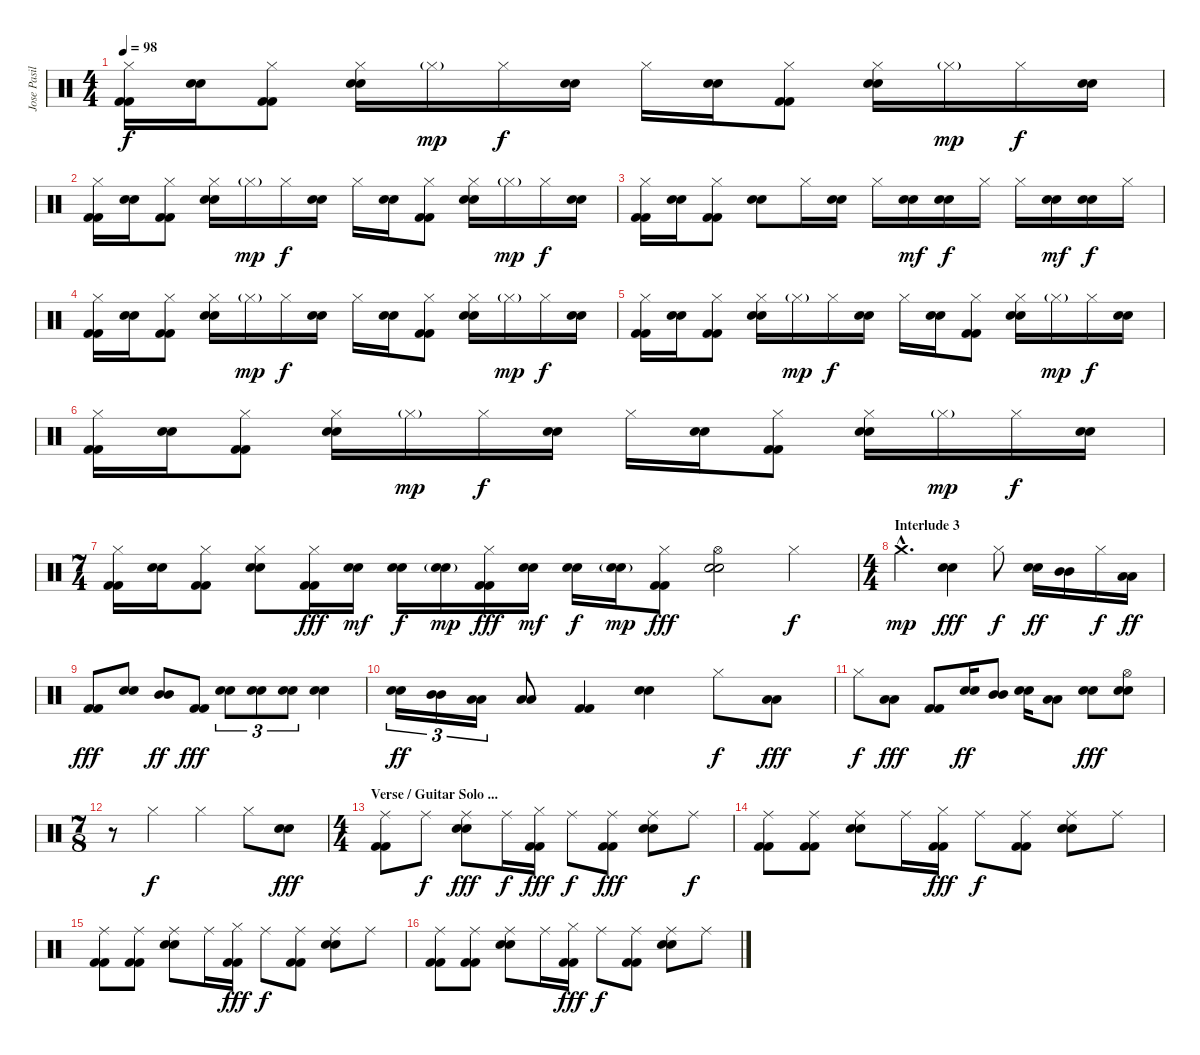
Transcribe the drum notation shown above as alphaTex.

\track ("Jose Pasillas - Drums" "Jose Pasil") {instrument percussion}
\staff {score}
\articulation defaults
\ts (4 4)
\tempo 98
\clef neutral
\ks c
("Hi-Hat (closed)" "Kick (hit) 2" "Kick (hit) 2").16{dy f} ("Electric Snare (hit)" "Electric Snare (hit)").16 ("Hi-Hat (closed)" "Kick (hit) 2" "Kick (hit) 2").8 ("Hi-Hat (closed)" "Electric Snare (hit)" "Electric Snare (hit)").16 "Hi-Hat (closed)"{g}.16{dy mp} "Hi-Hat (closed)".16{dy f} ("Electric Snare (hit)" "Electric Snare (hit)").16 "Hi-Hat (closed)".16 ("Electric Snare (hit)" "Electric Snare (hit)").16 ("Hi-Hat (closed)" "Kick (hit) 2" "Kick (hit) 2").8 ("Hi-Hat (closed)" "Electric Snare (hit)" "Electric Snare (hit)").16 "Hi-Hat (closed)"{g}.16{dy mp} "Hi-Hat (closed)".16{dy f} ("Electric Snare (hit)" "Electric Snare (hit)").16 |
("Hi-Hat (closed)" "Kick (hit) 2" "Kick (hit) 2").16 ("Electric Snare (hit)" "Electric Snare (hit)").16 ("Hi-Hat (closed)" "Kick (hit) 2" "Kick (hit) 2").8 ("Hi-Hat (closed)" "Electric Snare (hit)" "Electric Snare (hit)").16 "Hi-Hat (closed)"{g}.16{dy mp} "Hi-Hat (closed)".16{dy f} ("Electric Snare (hit)" "Electric Snare (hit)").16 "Hi-Hat (closed)".16 ("Electric Snare (hit)" "Electric Snare (hit)").16 ("Hi-Hat (closed)" "Kick (hit) 2" "Kick (hit) 2").8 ("Hi-Hat (closed)" "Electric Snare (hit)" "Electric Snare (hit)").16 "Hi-Hat (closed)"{g}.16{dy mp} "Hi-Hat (closed)".16{dy f} ("Electric Snare (hit)" "Electric Snare (hit)").16 |
("Hi-Hat (closed)" "Kick (hit) 2" "Kick (hit) 2").16 ("Electric Snare (hit)" "Electric Snare (hit)").16 ("Hi-Hat (closed)" "Kick (hit) 2" "Kick (hit) 2").8 ("Electric Snare (hit)" "Electric Snare (hit)").8 "Hi-Hat (closed)".16 ("Electric Snare (hit)" "Electric Snare (hit)").16 "Hi-Hat (closed)".16 ("Electric Snare (hit)" "Electric Snare (hit)").16{dy mf} ("Electric Snare (hit)" "Electric Snare (hit)").16{dy f} "Hi-Hat (closed)".16 "Hi-Hat (closed)".16 ("Electric Snare (hit)" "Electric Snare (hit)").16{dy mf} ("Electric Snare (hit)" "Electric Snare (hit)").16{dy f} "Hi-Hat (closed)".16 |
("Hi-Hat (closed)" "Kick (hit) 2" "Kick (hit) 2").16 ("Electric Snare (hit)" "Electric Snare (hit)").16 ("Hi-Hat (closed)" "Kick (hit) 2" "Kick (hit) 2").8 ("Hi-Hat (closed)" "Electric Snare (hit)" "Electric Snare (hit)").16 "Hi-Hat (closed)"{g}.16{dy mp} "Hi-Hat (closed)".16{dy f} ("Electric Snare (hit)" "Electric Snare (hit)").16 "Hi-Hat (closed)".16 ("Electric Snare (hit)" "Electric Snare (hit)").16 ("Hi-Hat (closed)" "Kick (hit) 2" "Kick (hit) 2").8 ("Hi-Hat (closed)" "Electric Snare (hit)" "Electric Snare (hit)").16 "Hi-Hat (closed)"{g}.16{dy mp} "Hi-Hat (closed)".16{dy f} ("Electric Snare (hit)" "Electric Snare (hit)").16 |
("Hi-Hat (closed)" "Kick (hit) 2" "Kick (hit) 2").16 ("Electric Snare (hit)" "Electric Snare (hit)").16 ("Hi-Hat (closed)" "Kick (hit) 2" "Kick (hit) 2").8 ("Hi-Hat (closed)" "Electric Snare (hit)" "Electric Snare (hit)").16 "Hi-Hat (closed)"{g}.16{dy mp} "Hi-Hat (closed)".16{dy f} ("Electric Snare (hit)" "Electric Snare (hit)").16 "Hi-Hat (closed)".16 ("Electric Snare (hit)" "Electric Snare (hit)").16 ("Hi-Hat (closed)" "Kick (hit) 2" "Kick (hit) 2").8 ("Hi-Hat (closed)" "Electric Snare (hit)" "Electric Snare (hit)").16 "Hi-Hat (closed)"{g}.16{dy mp} "Hi-Hat (closed)".16{dy f} ("Electric Snare (hit)" "Electric Snare (hit)").16 |
("Hi-Hat (closed)" "Kick (hit) 2" "Kick (hit) 2").16 ("Electric Snare (hit)" "Electric Snare (hit)").16 ("Hi-Hat (closed)" "Kick (hit) 2" "Kick (hit) 2").8 ("Hi-Hat (closed)" "Electric Snare (hit)" "Electric Snare (hit)").16 "Hi-Hat (closed)"{g}.16{dy mp} "Hi-Hat (closed)".16{dy f} ("Electric Snare (hit)" "Electric Snare (hit)").16 "Hi-Hat (closed)".16 ("Electric Snare (hit)" "Electric Snare (hit)").16 ("Hi-Hat (closed)" "Kick (hit) 2" "Kick (hit) 2").8 ("Hi-Hat (closed)" "Electric Snare (hit)" "Electric Snare (hit)").16 "Hi-Hat (closed)"{g}.16{dy mp} "Hi-Hat (closed)".16{dy f} ("Electric Snare (hit)" "Electric Snare (hit)").16 |
\ts (7 4)
("Hi-Hat (closed)" "Kick (hit) 2" "Kick (hit) 2").16 ("Electric Snare (hit)" "Electric Snare (hit)").16 ("Hi-Hat (closed)" "Kick (hit) 2" "Kick (hit) 2").8 ("Hi-Hat (closed)" "Electric Snare (hit)" "Electric Snare (hit)").8 ("Hi-Hat (closed)" "Kick (hit) 2" "Kick (hit) 2").16{dy fff} ("Electric Snare (hit)" "Electric Snare (hit)").16{dy mf} ("Electric Snare (hit)" "Electric Snare (hit)").16{dy f} ("Electric Snare (hit)"{g} "Electric Snare (hit)"{g}).16{dy mp} ("Hi-Hat (closed)" "Kick (hit) 2" "Kick (hit) 2").16{dy fff} ("Electric Snare (hit)" "Electric Snare (hit)").16{dy mf} ("Electric Snare (hit)" "Electric Snare (hit)").16{dy f} ("Electric Snare (hit)"{g} "Electric Snare (hit)"{g}).16{dy mp} ("Hi-Hat (closed)" "Kick (hit) 2" "Kick (hit) 2").8{dy fff} ("Hi-Hat (open)" "Electric Snare (hit)" "Electric Snare (hit)").2 "Hi-Hat (closed)".4{dy f} |
\ts (4 4)
\section ("" "Interlude 3")
"Crash medium (hit)"{hac}.4{d dy mp} ("Electric Snare (hit)" "Electric Snare (hit)").4{dy fff} "Hi-Hat (closed)".8{dy f} ("Electric Snare (hit)" "Electric Snare (hit)").16{dy ff} ("Mid Tom (hit)" "Mid Tom (hit)").16 "Hi-Hat (closed)".16{dy f} ("Low Tom (hit)" "Low Tom (hit)").16{dy ff} |
("Kick (hit) 2" "Kick (hit) 2").8{dy fff} ("Electric Snare (hit)" "Electric Snare (hit)").8 ("Mid Tom (hit)" "Mid Tom (hit)").8{dy ff} ("Kick (hit) 2" "Kick (hit) 2").8{dy fff} ("Electric Snare (hit)" "Electric Snare (hit)").8{tu (3 2)} ("Electric Snare (hit)" "Electric Snare (hit)").8{tu (3 2)} ("Electric Snare (hit)" "Electric Snare (hit)").8{tu (3 2)} ("Electric Snare (hit)" "Electric Snare (hit)").4 |
("Electric Snare (hit)" "Electric Snare (hit)").16{tu (3 2) dy ff} ("Mid Tom (hit)" "Mid Tom (hit)").16{tu (3 2)} ("Low Tom (hit)" "Low Tom (hit)").16{tu (3 2)} ("Low Floor Tom (hit)" "Low Floor Tom (hit)").8 ("Kick (hit) 2" "Kick (hit) 2").4 ("Electric Snare (hit)" "Electric Snare (hit)").4 "Hi-Hat (closed)".8{dy f} ("Low Tom (hit)" "Low Tom (hit)").8{dy fff} |
"Hi-Hat (closed)".8{dy f} ("Low Floor Tom (hit)" "Low Floor Tom (hit)").8{dy fff} ("Kick (hit) 2" "Kick (hit) 2").8 ("Electric Snare (hit)" "Electric Snare (hit)").16{dy ff} ("Mid Tom (hit)" "Mid Tom (hit)").8 ("Electric Snare (hit)" "Electric Snare (hit)").16 ("Low Floor Tom (hit)" "Low Floor Tom (hit)").8 ("Electric Snare (hit)" "Electric Snare (hit)").8{dy fff} ("Hi-Hat (open)" "Electric Snare (hit)" "Electric Snare (hit)").8 |
\ts (7 8)
r.8 "Hi-Hat (closed)".4{dy f} "Hi-Hat (closed)".4 "Hi-Hat (closed)".8 ("Electric Snare (hit)" "Electric Snare (hit)").8{dy fff} |
\ts (4 4)
\section ("" "Verse / Guitar Solo ...")
("Ride (middle)" "Kick (hit) 2" "Kick (hit) 2").8 "Ride (middle)".8{dy f} ("Ride (middle)" "Electric Snare (hit)" "Electric Snare (hit)").8{dy fff} "Ride (middle)".16{dy f} ("Hi-Hat (closed)" "Kick (hit) 2" "Kick (hit) 2").16{dy fff} "Ride (middle)".8{dy f} ("Ride (middle)" "Kick (hit) 2" "Kick (hit) 2").8{dy fff} ("Ride (middle)" "Electric Snare (hit)" "Electric Snare (hit)").8 "Ride (middle)".8{dy f} |
("Ride (middle)" "Kick (hit) 2" "Kick (hit) 2").8 ("Ride (middle)" "Kick (hit) 2" "Kick (hit) 2").8 ("Ride (middle)" "Electric Snare (hit)" "Electric Snare (hit)").8 "Ride (middle)".16 ("Hi-Hat (closed)" "Kick (hit) 2" "Kick (hit) 2").16{dy fff} "Ride (middle)".8{dy f} ("Ride (middle)" "Kick (hit) 2" "Kick (hit) 2").8 ("Ride (middle)" "Electric Snare (hit)" "Electric Snare (hit)").8 "Ride (middle)".8 |
("Ride (middle)" "Kick (hit) 2" "Kick (hit) 2").8 ("Ride (middle)" "Kick (hit) 2" "Kick (hit) 2").8 ("Ride (middle)" "Electric Snare (hit)" "Electric Snare (hit)").8 "Ride (middle)".16 ("Hi-Hat (closed)" "Kick (hit) 2" "Kick (hit) 2").16{dy fff} "Ride (middle)".8{dy f} ("Ride (middle)" "Kick (hit) 2" "Kick (hit) 2").8 ("Ride (middle)" "Electric Snare (hit)" "Electric Snare (hit)").8 "Ride (middle)".8 |
("Ride (middle)" "Kick (hit) 2" "Kick (hit) 2").8 ("Ride (middle)" "Kick (hit) 2" "Kick (hit) 2").8 ("Ride (middle)" "Electric Snare (hit)" "Electric Snare (hit)").8 "Ride (middle)".16 ("Hi-Hat (closed)" "Kick (hit) 2" "Kick (hit) 2").16{dy fff} "Ride (middle)".8{dy f} ("Ride (middle)" "Kick (hit) 2" "Kick (hit) 2").8 ("Ride (middle)" "Electric Snare (hit)" "Electric Snare (hit)").8 "Ride (middle)".8
